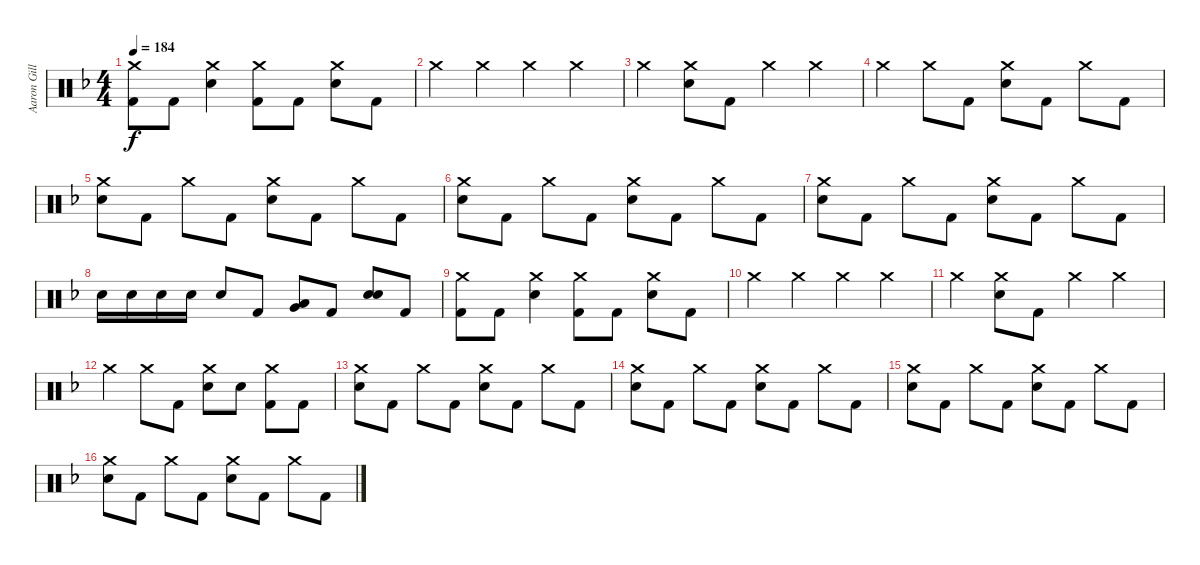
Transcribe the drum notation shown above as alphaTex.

\track ("Aaron Gillespie" "Aaron Gill") {instrument percussion}
\staff {score}
\articulation defaults
\ts (4 4)
\tempo 184
\clef neutral
\ks dminor
("Crash medium (hit)" "Kick (hit) 2").8{dy f} "Kick (hit) 2".8 ("Crash medium (hit)" "Snare (hit) 2").4 ("Crash medium (hit)" "Kick (hit) 2").8 "Kick (hit) 2".8 ("Crash medium (hit)" "Snare (hit) 2").8 "Kick (hit) 2".8 |
"Crash medium (hit)".4 "Crash medium (hit)".4 "Crash medium (hit)".4 "Crash medium (hit)".4 |
"Crash medium (hit)".4 ("Crash medium (hit)" "Snare (hit) 2").8 "Kick (hit) 2".8 "Crash medium (hit)".4 "Crash medium (hit)".4 |
"Crash medium (hit)".4 "Crash medium (hit)".8 "Kick (hit) 2".8 ("Crash medium (hit)" "Snare (hit) 2").8 "Kick (hit) 2".8 "Crash medium (hit)".8 "Kick (hit) 2".8 |
("Crash medium (hit)" "Snare (hit) 2").8 "Kick (hit) 2".8 "Crash medium (hit)".8 "Kick (hit) 2".8 ("Crash medium (hit)" "Snare (hit) 2").8 "Kick (hit) 2".8 "Crash medium (hit)".8 "Kick (hit) 2".8 |
("Crash medium (hit)" "Snare (hit) 2").8 "Kick (hit) 2".8 "Crash medium (hit)".8 "Kick (hit) 2".8 ("Crash medium (hit)" "Snare (hit) 2").8 "Kick (hit) 2".8 "Crash medium (hit)".8 "Kick (hit) 2".8 |
("Crash medium (hit)" "Snare (hit) 2").8 "Kick (hit) 2".8 "Crash medium (hit)".8 "Kick (hit) 2".8 ("Crash medium (hit)" "Snare (hit) 2").8 "Kick (hit) 2".8 "Crash medium (hit)".8 "Kick (hit) 2".8 |
"Snare (hit) 2".16 "Snare (hit) 2".16 "Snare (hit) 2".16 "Snare (hit) 2".16 "Snare (hit) 2".8 "Kick (hit) 2".8 ("Low Tom (hit)" "Very Low Tom (hit)").8 "Kick (hit) 2".8 ("Snare (hit) 2" "Snare (hit) 2").8 "Kick (hit) 2".8 |
("Crash medium (hit)" "Kick (hit) 2").8 "Kick (hit) 2".8 ("Crash medium (hit)" "Snare (hit) 2").4 ("Crash medium (hit)" "Kick (hit) 2").8 "Kick (hit) 2".8 ("Crash medium (hit)" "Snare (hit) 2").8 "Kick (hit) 2".8 |
"Crash medium (hit)".4 "Crash medium (hit)".4 "Crash medium (hit)".4 "Crash medium (hit)".4 |
"Crash medium (hit)".4 ("Crash medium (hit)" "Snare (hit) 2").8 "Kick (hit) 2".8 "Crash medium (hit)".4 "Crash medium (hit)".4 |
"Crash medium (hit)".4 "Crash medium (hit)".8 "Kick (hit) 2".8 ("Crash medium (hit)" "Snare (hit) 2").8 "Snare (hit) 2".8 ("Crash medium (hit)" "Kick (hit) 2").8 "Kick (hit) 2".8 |
("Crash medium (hit)" "Snare (hit) 2").8 "Kick (hit) 2".8 "Crash medium (hit)".8 "Kick (hit) 2".8 ("Crash medium (hit)" "Snare (hit) 2").8 "Kick (hit) 2".8 "Crash medium (hit)".8 "Kick (hit) 2".8 |
("Crash medium (hit)" "Snare (hit) 2").8 "Kick (hit) 2".8 "Crash medium (hit)".8 "Kick (hit) 2".8 ("Crash medium (hit)" "Snare (hit) 2").8 "Kick (hit) 2".8 "Crash medium (hit)".8 "Kick (hit) 2".8 |
("Crash medium (hit)" "Snare (hit) 2").8 "Kick (hit) 2".8 "Crash medium (hit)".8 "Kick (hit) 2".8 ("Crash medium (hit)" "Snare (hit) 2").8 "Kick (hit) 2".8 "Crash medium (hit)".8 "Kick (hit) 2".8 |
("Crash medium (hit)" "Snare (hit) 2").8 "Kick (hit) 2".8 "Crash medium (hit)".8 "Kick (hit) 2".8 ("Crash medium (hit)" "Snare (hit) 2").8 "Kick (hit) 2".8 "Crash medium (hit)".8 "Kick (hit) 2".8
